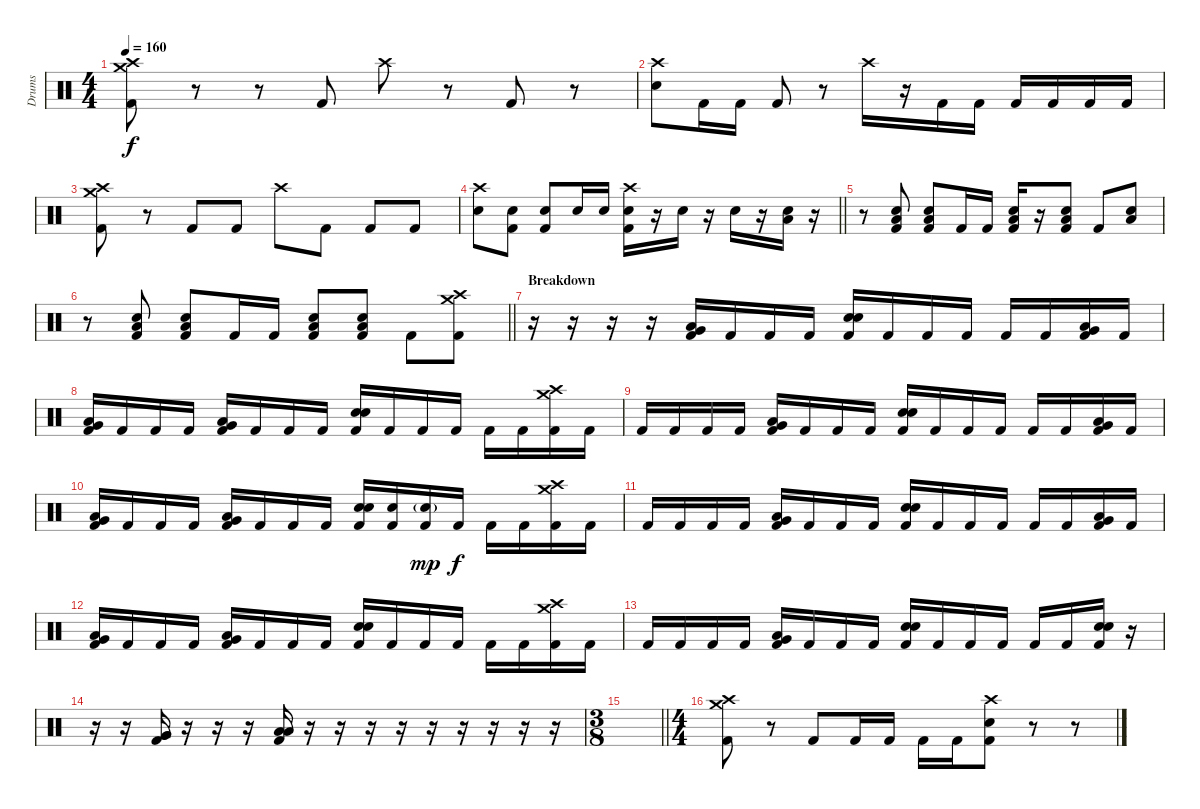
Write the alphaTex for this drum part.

\track ("Drums" "Drums") {instrument percussion}
\staff {score}
\articulation defaults
\ts (4 4)
\tempo 160
\clef neutral
\ks c
("Crash high (hit)" "Crash medium (hit)" "Kick (hit) 2").8{dy f} r.8 r.8 "Kick (hit) 2".8 "Crash high (hit)".8 r.8 "Kick (hit) 2".8 r.8 |
("Crash high (hit)" "Electric Snare (hit)").8 "Kick (hit) 2".16 "Kick (hit) 2".16 "Kick (hit) 2".8 r.8 "Crash high (hit)".16 r.16 "Kick (hit) 2".16 "Kick (hit) 2".16 "Kick (hit) 2".16 "Kick (hit) 2".16 "Kick (hit) 2".16 "Kick (hit) 2".16 |
("Crash high (hit)" "Crash medium (hit)" "Kick (hit) 2").8 r.8 "Kick (hit) 2".8 "Kick (hit) 2".8 "Crash high (hit)".8 "Kick (hit) 2".8 "Kick (hit) 2".8 "Kick (hit) 2".8 |
\barLineRight lightlight
("Crash high (hit)" "Electric Snare (hit)").8 ("Electric Snare (hit)" "Kick (hit) 2").8 ("Electric Snare (hit)" "Kick (hit) 2").8 "Electric Snare (hit)".16 "Electric Snare (hit)".16 ("Crash high (hit)" "Electric Snare (hit)" "Kick (hit) 2").16 r.16 "Electric Snare (hit)".16 r.16 "Electric Snare (hit)".16 r.16 ("Low Floor Tom (hit)" "Electric Snare (hit)").16 r.16 |
\section ("" "")
r.8 ("Low Floor Tom (hit)" "Electric Snare (hit)" "Kick (hit) 2").8 ("Low Floor Tom (hit)" "Electric Snare (hit)" "Kick (hit) 2").8 "Kick (hit) 2".16 "Kick (hit) 2".16 ("Low Floor Tom (hit)" "Electric Snare (hit)" "Kick (hit) 2").16 r.16 ("Low Floor Tom (hit)" "Electric Snare (hit)" "Kick (hit) 2").8 "Kick (hit) 2".8 ("Low Floor Tom (hit)" "Electric Snare (hit)").8 |
\barLineRight lightlight
r.8 ("Low Floor Tom (hit)" "Electric Snare (hit)" "Kick (hit) 2").8 ("Low Floor Tom (hit)" "Electric Snare (hit)" "Kick (hit) 2").8 "Kick (hit) 2".16 "Kick (hit) 2".16 ("Low Floor Tom (hit)" "Electric Snare (hit)" "Kick (hit) 2").8 ("Low Floor Tom (hit)" "Electric Snare (hit)" "Kick (hit) 2").8 "Kick (hit) 2".8 ("Crash high (hit)" "Crash medium (hit)" "Kick (hit) 2").8 |
\section ("" "Breakdown")
r.16 r.16 r.16 r.16 ("Very Low Tom (hit)" "Low Floor Tom (hit)" "Kick (hit) 2").16 "Kick (hit) 2".16 "Kick (hit) 2".16 "Kick (hit) 2".16 ("Electric Snare (hit)" "Snare (hit) 2" "Kick (hit) 2").16 "Kick (hit) 2".16 "Kick (hit) 2".16 "Kick (hit) 2".16 "Kick (hit) 2".16 "Kick (hit) 2".16 ("Very Low Tom (hit)" "Low Floor Tom (hit)" "Kick (hit) 2").16 "Kick (hit) 2".16 |
("Very Low Tom (hit)" "Low Floor Tom (hit)" "Kick (hit) 2").16 "Kick (hit) 2".16 "Kick (hit) 2".16 "Kick (hit) 2".16 ("Very Low Tom (hit)" "Low Floor Tom (hit)" "Kick (hit) 2").16 "Kick (hit) 2".16 "Kick (hit) 2".16 "Kick (hit) 2".16 ("Electric Snare (hit)" "Snare (hit) 2" "Kick (hit) 2").16 "Kick (hit) 2".16 "Kick (hit) 2".16 "Kick (hit) 2".16 "Kick (hit) 2".16 "Kick (hit) 2".16 ("Crash high (hit)" "Crash medium (hit)" "Kick (hit) 2").16 "Kick (hit) 2".16 |
"Kick (hit) 2".16 "Kick (hit) 2".16 "Kick (hit) 2".16 "Kick (hit) 2".16 ("Very Low Tom (hit)" "Low Floor Tom (hit)" "Kick (hit) 2").16 "Kick (hit) 2".16 "Kick (hit) 2".16 "Kick (hit) 2".16 ("Electric Snare (hit)" "Snare (hit) 2" "Kick (hit) 2").16 "Kick (hit) 2".16 "Kick (hit) 2".16 "Kick (hit) 2".16 "Kick (hit) 2".16 "Kick (hit) 2".16 ("Very Low Tom (hit)" "Low Floor Tom (hit)" "Kick (hit) 2").16 "Kick (hit) 2".16 |
("Very Low Tom (hit)" "Low Floor Tom (hit)" "Kick (hit) 2").16 "Kick (hit) 2".16 "Kick (hit) 2".16 "Kick (hit) 2".16 ("Very Low Tom (hit)" "Low Floor Tom (hit)" "Kick (hit) 2").16 "Kick (hit) 2".16 "Kick (hit) 2".16 "Kick (hit) 2".16 ("Electric Snare (hit)" "Snare (hit) 2" "Kick (hit) 2").16 ("Electric Snare (hit)" "Kick (hit) 2").16 ("Electric Snare (hit)"{g} "Kick (hit) 2").16{dy mp} "Kick (hit) 2".16{dy f} "Kick (hit) 2".16 "Kick (hit) 2".16 ("Crash high (hit)" "Crash medium (hit)" "Kick (hit) 2").16 "Kick (hit) 2".16 |
"Kick (hit) 2".16 "Kick (hit) 2".16 "Kick (hit) 2".16 "Kick (hit) 2".16 ("Very Low Tom (hit)" "Low Floor Tom (hit)" "Kick (hit) 2").16 "Kick (hit) 2".16 "Kick (hit) 2".16 "Kick (hit) 2".16 ("Electric Snare (hit)" "Snare (hit) 2" "Kick (hit) 2").16 "Kick (hit) 2".16 "Kick (hit) 2".16 "Kick (hit) 2".16 "Kick (hit) 2".16 "Kick (hit) 2".16 ("Very Low Tom (hit)" "Low Floor Tom (hit)" "Kick (hit) 2").16 "Kick (hit) 2".16 |
("Very Low Tom (hit)" "Low Floor Tom (hit)" "Kick (hit) 2").16 "Kick (hit) 2".16 "Kick (hit) 2".16 "Kick (hit) 2".16 ("Very Low Tom (hit)" "Low Floor Tom (hit)" "Kick (hit) 2").16 "Kick (hit) 2".16 "Kick (hit) 2".16 "Kick (hit) 2".16 ("Electric Snare (hit)" "Snare (hit) 2" "Kick (hit) 2").16 "Kick (hit) 2".16 "Kick (hit) 2".16 "Kick (hit) 2".16 "Kick (hit) 2".16 "Kick (hit) 2".16 ("Crash high (hit)" "Crash medium (hit)" "Kick (hit) 2").16 "Kick (hit) 2".16 |
"Kick (hit) 2".16 "Kick (hit) 2".16 "Kick (hit) 2".16 "Kick (hit) 2".16 ("Very Low Tom (hit)" "Low Floor Tom (hit)" "Kick (hit) 2").16 "Kick (hit) 2".16 "Kick (hit) 2".16 "Kick (hit) 2".16 ("Electric Snare (hit)" "Snare (hit) 2" "Kick (hit) 2").16 "Kick (hit) 2".16 "Kick (hit) 2".16 "Kick (hit) 2".16 "Kick (hit) 2".16 "Kick (hit) 2".16 ("Electric Snare (hit)" "Snare (hit) 2" "Kick (hit) 2").16 r.16 |
r.16 r.16 ("Very Low Tom (hit)" "Very Low Tom (hit)" "Kick (hit) 2").16 r.16 r.16 r.16 ("Low Floor Tom (hit)" "Low Floor Tom (hit)" "Kick (hit) 2").16 r.16 r.16 r.16 r.16 r.16 r.16 r.16 r.16 r.16 |
\ts (3 8)
\barLineRight lightlight
|
\ts (4 4)
\section ("" "")
("Crash high (hit)" "Crash medium (hit)" "Kick (hit) 2").8 r.8 "Kick (hit) 2".8 "Kick (hit) 2".16 "Kick (hit) 2".16 "Kick (hit) 2".16 "Kick (hit) 2".16 ("Crash high (hit)" "Electric Snare (hit)" "Kick (hit) 2").8 r.8 r.8
